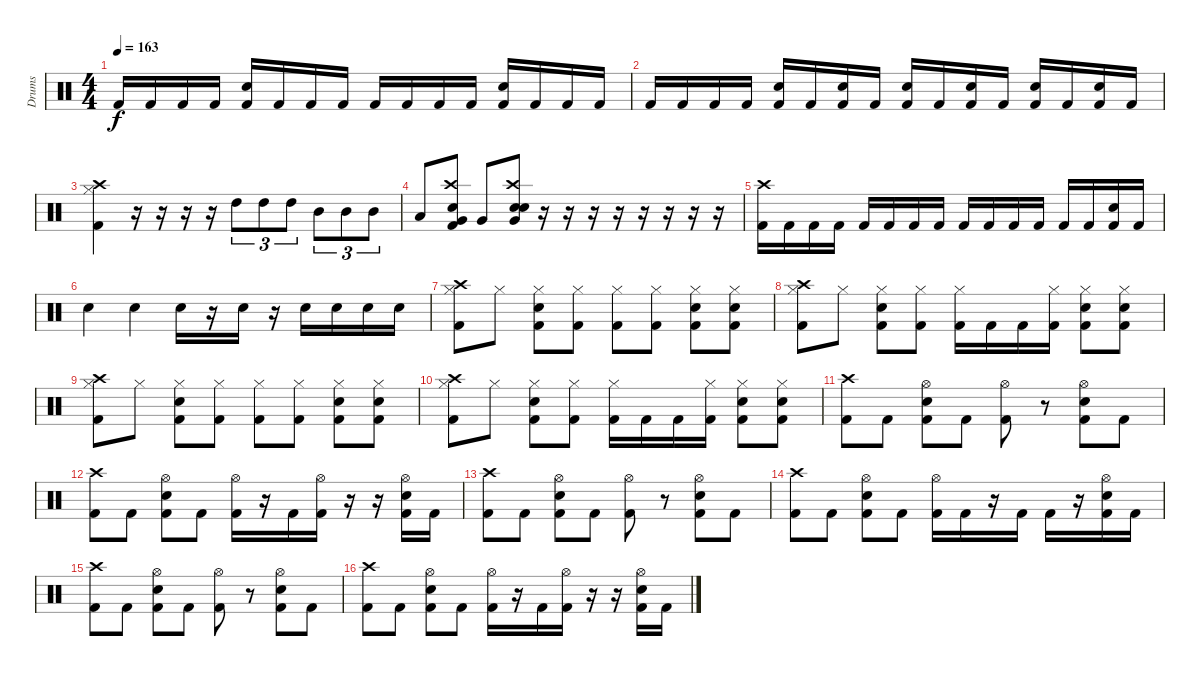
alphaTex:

\track ("Drums" "Drums") {instrument percussion}
\staff {score}
\articulation defaults
\ts (4 4)
\tempo 163
\clef neutral
\ks c "Kick (hit) 2".16{dy f} "Kick (hit) 2".16 "Kick (hit) 2".16 "Kick (hit) 2".16
("Snare (hit) 2" "Kick (hit) 2").16 "Kick (hit) 2".16 "Kick (hit) 2".16 "Kick (hit) 2".16 "Kick (hit) 2".16 "Kick (hit) 2".16 "Kick (hit) 2".16 "Kick (hit) 2".16 ("Snare (hit) 2" "Kick (hit) 2").16 "Kick (hit) 2".16 "Kick (hit) 2".16 "Kick (hit) 2".16 |
"Kick (hit) 2".16 "Kick (hit) 2".16 "Kick (hit) 2".16 "Kick (hit) 2".16 ("Snare (hit) 2" "Kick (hit) 2").16 "Kick (hit) 2".16 ("Snare (hit) 2" "Kick (hit) 2").16 "Kick (hit) 2".16 ("Snare (hit) 2" "Kick (hit) 2").16 "Kick (hit) 2".16 ("Snare (hit) 2" "Kick (hit) 2").16 "Kick (hit) 2".16 ("Snare (hit) 2" "Kick (hit) 2").16 "Kick (hit) 2".16 ("Snare (hit) 2" "Kick (hit) 2").16 "Kick (hit) 2".16 |
("Crash high (hit)" "Hi-Hat (closed)" "Kick (hit) 2").4 r.16 r.16 r.16 r.16 "High Tom (hit)".8{tu (3 2)} "High Tom (hit)".8{tu (3 2)} "High Tom (hit)".8{tu (3 2)} "Mid Tom (hit)".8{tu (3 2)} "Mid Tom (hit)".8{tu (3 2)} "Mid Tom (hit)".8{tu (3 2)} |
"Low Tom (hit)".8 ("Crash high (hit)" "Electric Snare (hit)" "Very Low Tom (hit)" "Kick (hit) 2").8 "Very Low Tom (hit)".8 ("Crash high (hit)" "Electric Snare (hit)" "Very Low Tom (hit)" "Snare (hit)").8 r.16 r.16 r.16 r.16 r.16 r.16 r.16 r.16 |
("Crash high (hit)" "Kick (hit) 2").16 "Kick (hit) 2".16 "Kick (hit) 2".16 "Kick (hit) 2".16 "Kick (hit) 2".16 "Kick (hit) 2".16 "Kick (hit) 2".16 "Kick (hit) 2".16 "Kick (hit) 2".16 "Kick (hit) 2".16 "Kick (hit) 2".16 "Kick (hit) 2".16 "Kick (hit) 2".16 "Kick (hit) 2".16 ("Snare (hit) 2" "Kick (hit) 2").16 "Kick (hit) 2".16 |
"Snare (hit) 2".4 "Snare (hit) 2".4 "Snare (hit) 2".16 r.16 "Snare (hit) 2".16 r.16 "Snare (hit) 2".16 "Snare (hit) 2".16 "Snare (hit) 2".16 "Snare (hit) 2".16 |
("Crash high (hit)" "Hi-Hat (closed)" "Kick (hit) 2").8 "Hi-Hat (closed)".8 ("Snare (hit) 2" "Hi-Hat (closed)" "Kick (hit) 2").8 ("Hi-Hat (closed)" "Kick (hit) 2").8 ("Hi-Hat (closed)" "Kick (hit) 2").8 ("Hi-Hat (closed)" "Kick (hit) 2").8 ("Snare (hit) 2" "Hi-Hat (closed)" "Kick (hit) 2").8 ("Snare (hit) 2" "Hi-Hat (closed)" "Kick (hit) 2").8 |
("Crash high (hit)" "Hi-Hat (closed)" "Kick (hit) 2").8 "Hi-Hat (closed)".8 ("Snare (hit) 2" "Hi-Hat (closed)" "Kick (hit) 2").8 ("Hi-Hat (closed)" "Kick (hit) 2").8 ("Hi-Hat (closed)" "Kick (hit) 2").16 "Kick (hit) 2".16 "Kick (hit) 2".16 ("Hi-Hat (closed)" "Kick (hit) 2").16 ("Snare (hit) 2" "Hi-Hat (closed)" "Kick (hit) 2").8 ("Snare (hit) 2" "Hi-Hat (closed)" "Kick (hit) 2").8 |
("Crash high (hit)" "Hi-Hat (closed)" "Kick (hit) 2").8 "Hi-Hat (closed)".8 ("Snare (hit) 2" "Hi-Hat (closed)" "Kick (hit) 2").8 ("Hi-Hat (closed)" "Kick (hit) 2").8 ("Hi-Hat (closed)" "Kick (hit) 2").8 ("Hi-Hat (closed)" "Kick (hit) 2").8 ("Snare (hit) 2" "Hi-Hat (closed)" "Kick (hit) 2").8 ("Snare (hit) 2" "Hi-Hat (closed)" "Kick (hit) 2").8 |
("Crash high (hit)" "Hi-Hat (closed)" "Kick (hit) 2").8 "Hi-Hat (closed)".8 ("Snare (hit) 2" "Hi-Hat (closed)" "Kick (hit) 2").8 ("Hi-Hat (closed)" "Kick (hit) 2").8 ("Hi-Hat (closed)" "Kick (hit) 2").16 "Kick (hit) 2".16 "Kick (hit) 2".16 ("Hi-Hat (closed)" "Kick (hit) 2").16 ("Snare (hit) 2" "Hi-Hat (closed)" "Kick (hit) 2").8 ("Snare (hit) 2" "Hi-Hat (closed)" "Kick (hit) 2").8 |
("Crash high (hit)" "Kick (hit) 2").8 "Kick (hit) 2".8 ("Hi-Hat (open)" "Kick (hit) 2" "Snare (hit) 2").8 "Kick (hit) 2".8 ("Hi-Hat (open)" "Kick (hit) 2").8 r.8 ("Hi-Hat (open)" "Kick (hit) 2" "Snare (hit) 2").8 "Kick (hit) 2".8 |
("Crash high (hit)" "Kick (hit) 2").8 "Kick (hit) 2".8 ("Hi-Hat (open)" "Kick (hit) 2" "Snare (hit) 2").8 "Kick (hit) 2".8 ("Hi-Hat (open)" "Kick (hit) 2").16 r.16 "Kick (hit) 2".16 ("Hi-Hat (open)" "Kick (hit) 2").16 r.16 r.16 ("Hi-Hat (open)" "Kick (hit) 2" "Snare (hit) 2").16 "Kick (hit) 2".16 |
("Crash high (hit)" "Kick (hit) 2").8 "Kick (hit) 2".8 ("Hi-Hat (open)" "Kick (hit) 2" "Snare (hit) 2").8 "Kick (hit) 2".8 ("Hi-Hat (open)" "Kick (hit) 2").8 r.8 ("Hi-Hat (open)" "Kick (hit) 2" "Snare (hit) 2").8 "Kick (hit) 2".8 |
("Crash high (hit)" "Kick (hit) 2").8 "Kick (hit) 2".8 ("Hi-Hat (open)" "Kick (hit) 2" "Snare (hit) 2").8 "Kick (hit) 2".8 ("Hi-Hat (open)" "Kick (hit) 2").16 "Kick (hit) 2".16 r.16 "Kick (hit) 2".16 "Kick (hit) 2".16 r.16 ("Hi-Hat (open)" "Kick (hit) 2" "Snare (hit) 2").16 "Kick (hit) 2".16 |
("Crash high (hit)" "Kick (hit) 2").8 "Kick (hit) 2".8 ("Hi-Hat (open)" "Kick (hit) 2" "Snare (hit) 2").8 "Kick (hit) 2".8 ("Hi-Hat (open)" "Kick (hit) 2").8 r.8 ("Hi-Hat (open)" "Kick (hit) 2" "Snare (hit) 2").8 "Kick (hit) 2".8 |
("Crash high (hit)" "Kick (hit) 2").8 "Kick (hit) 2".8 ("Hi-Hat (open)" "Kick (hit) 2" "Snare (hit) 2").8 "Kick (hit) 2".8 ("Hi-Hat (open)" "Kick (hit) 2").16 r.16 "Kick (hit) 2".16 ("Hi-Hat (open)" "Kick (hit) 2").16 r.16 r.16 ("Hi-Hat (open)" "Kick (hit) 2" "Snare (hit) 2").16 "Kick (hit) 2".16
